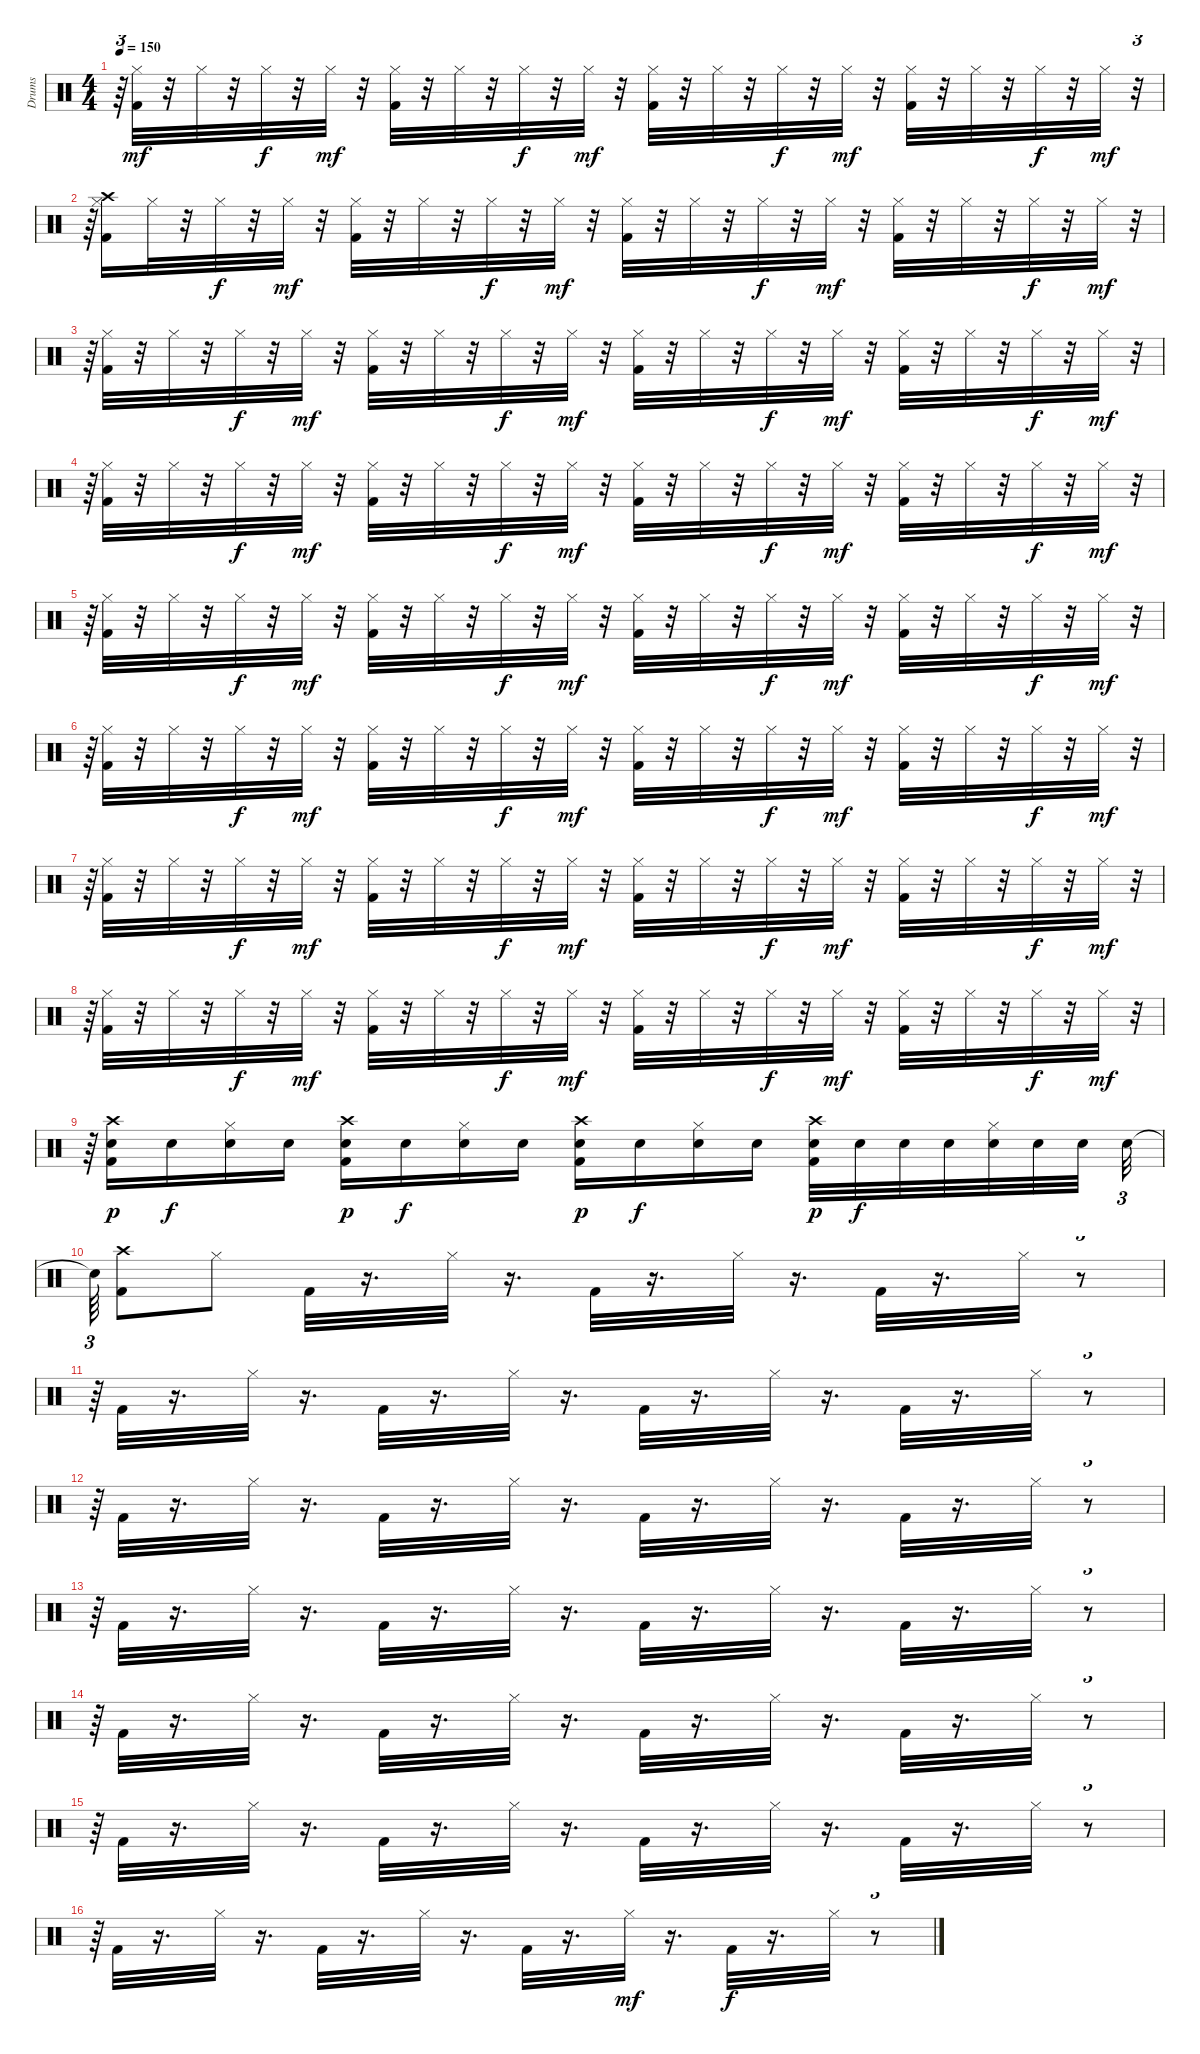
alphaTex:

\track ("Drums" "Drums") {instrument percussion}
\staff {score}
\articulation defaults
\ts (4 4)
\tempo 150
\clef neutral
\ks c
r.64{tu (3 2) dy mf} ("Hi-Hat (closed)" "Kick (hit) 2").32 r.32 "Hi-Hat (closed)".32 r.32 "Hi-Hat (closed)".32{dy f} r.32 "Hi-Hat (closed)".32{dy mf} r.32 ("Hi-Hat (closed)" "Kick (hit) 2").32 r.32 "Hi-Hat (closed)".32 r.32 "Hi-Hat (closed)".32{dy f} r.32 "Hi-Hat (closed)".32{dy mf} r.32 ("Hi-Hat (closed)" "Kick (hit) 2").32 r.32 "Hi-Hat (closed)".32 r.32 "Hi-Hat (closed)".32{dy f} r.32 "Hi-Hat (closed)".32{dy mf} r.32 ("Hi-Hat (closed)" "Kick (hit) 2").32 r.32 "Hi-Hat (closed)".32 r.32 "Hi-Hat (closed)".32{dy f} r.32 "Hi-Hat (closed)".32{dy mf} r.32{tu (3 2)} |
r.64{tu (3 2)} ("Hi-Hat (closed)" "Kick (hit) 2" "Crash high (hit)").16 "Hi-Hat (closed)".32 r.32 "Hi-Hat (closed)".32{dy f} r.32 "Hi-Hat (closed)".32{dy mf} r.32 ("Hi-Hat (closed)" "Kick (hit) 2").32 r.32 "Hi-Hat (closed)".32 r.32 "Hi-Hat (closed)".32{dy f} r.32 "Hi-Hat (closed)".32{dy mf} r.32 ("Hi-Hat (closed)" "Kick (hit) 2").32 r.32 "Hi-Hat (closed)".32 r.32 "Hi-Hat (closed)".32{dy f} r.32 "Hi-Hat (closed)".32{dy mf} r.32 ("Hi-Hat (closed)" "Kick (hit) 2").32 r.32 "Hi-Hat (closed)".32 r.32 "Hi-Hat (closed)".32{dy f} r.32 "Hi-Hat (closed)".32{dy mf} r.32{tu (3 2)} |
r.64{tu (3 2)} ("Hi-Hat (closed)" "Kick (hit) 2").32 r.32 "Hi-Hat (closed)".32 r.32 "Hi-Hat (closed)".32{dy f} r.32 "Hi-Hat (closed)".32{dy mf} r.32 ("Hi-Hat (closed)" "Kick (hit) 2").32 r.32 "Hi-Hat (closed)".32 r.32 "Hi-Hat (closed)".32{dy f} r.32 "Hi-Hat (closed)".32{dy mf} r.32 ("Hi-Hat (closed)" "Kick (hit) 2").32 r.32 "Hi-Hat (closed)".32 r.32 "Hi-Hat (closed)".32{dy f} r.32 "Hi-Hat (closed)".32{dy mf} r.32 ("Hi-Hat (closed)" "Kick (hit) 2").32 r.32 "Hi-Hat (closed)".32 r.32 "Hi-Hat (closed)".32{dy f} r.32 "Hi-Hat (closed)".32{dy mf} r.32{tu (3 2)} |
r.64{tu (3 2)} ("Hi-Hat (closed)" "Kick (hit) 2").32 r.32 "Hi-Hat (closed)".32 r.32 "Hi-Hat (closed)".32{dy f} r.32 "Hi-Hat (closed)".32{dy mf} r.32 ("Hi-Hat (closed)" "Kick (hit) 2").32 r.32 "Hi-Hat (closed)".32 r.32 "Hi-Hat (closed)".32{dy f} r.32 "Hi-Hat (closed)".32{dy mf} r.32 ("Hi-Hat (closed)" "Kick (hit) 2").32 r.32 "Hi-Hat (closed)".32 r.32 "Hi-Hat (closed)".32{dy f} r.32 "Hi-Hat (closed)".32{dy mf} r.32 ("Hi-Hat (closed)" "Kick (hit) 2").32 r.32 "Hi-Hat (closed)".32 r.32 "Hi-Hat (closed)".32{dy f} r.32 "Hi-Hat (closed)".32{dy mf} r.32{tu (3 2)} |
r.64{tu (3 2)} ("Hi-Hat (closed)" "Kick (hit) 2").32 r.32 "Hi-Hat (closed)".32 r.32 "Hi-Hat (closed)".32{dy f} r.32 "Hi-Hat (closed)".32{dy mf} r.32 ("Hi-Hat (closed)" "Kick (hit) 2").32 r.32 "Hi-Hat (closed)".32 r.32 "Hi-Hat (closed)".32{dy f} r.32 "Hi-Hat (closed)".32{dy mf} r.32 ("Hi-Hat (closed)" "Kick (hit) 2").32 r.32 "Hi-Hat (closed)".32 r.32 "Hi-Hat (closed)".32{dy f} r.32 "Hi-Hat (closed)".32{dy mf} r.32 ("Hi-Hat (closed)" "Kick (hit) 2").32 r.32 "Hi-Hat (closed)".32 r.32 "Hi-Hat (closed)".32{dy f} r.32 "Hi-Hat (closed)".32{dy mf} r.32{tu (3 2)} |
r.64{tu (3 2)} ("Hi-Hat (closed)" "Kick (hit) 2").32 r.32 "Hi-Hat (closed)".32 r.32 "Hi-Hat (closed)".32{dy f} r.32 "Hi-Hat (closed)".32{dy mf} r.32 ("Hi-Hat (closed)" "Kick (hit) 2").32 r.32 "Hi-Hat (closed)".32 r.32 "Hi-Hat (closed)".32{dy f} r.32 "Hi-Hat (closed)".32{dy mf} r.32 ("Hi-Hat (closed)" "Kick (hit) 2").32 r.32 "Hi-Hat (closed)".32 r.32 "Hi-Hat (closed)".32{dy f} r.32 "Hi-Hat (closed)".32{dy mf} r.32 ("Hi-Hat (closed)" "Kick (hit) 2").32 r.32 "Hi-Hat (closed)".32 r.32 "Hi-Hat (closed)".32{dy f} r.32 "Hi-Hat (closed)".32{dy mf} r.32{tu (3 2)} |
r.64{tu (3 2)} ("Hi-Hat (closed)" "Kick (hit) 2").32 r.32 "Hi-Hat (closed)".32 r.32 "Hi-Hat (closed)".32{dy f} r.32 "Hi-Hat (closed)".32{dy mf} r.32 ("Hi-Hat (closed)" "Kick (hit) 2").32 r.32 "Hi-Hat (closed)".32 r.32 "Hi-Hat (closed)".32{dy f} r.32 "Hi-Hat (closed)".32{dy mf} r.32 ("Hi-Hat (closed)" "Kick (hit) 2").32 r.32 "Hi-Hat (closed)".32 r.32 "Hi-Hat (closed)".32{dy f} r.32 "Hi-Hat (closed)".32{dy mf} r.32 ("Hi-Hat (closed)" "Kick (hit) 2").32 r.32 "Hi-Hat (closed)".32 r.32 "Hi-Hat (closed)".32{dy f} r.32 "Hi-Hat (closed)".32{dy mf} r.32{tu (3 2)} |
r.64{tu (3 2)} ("Hi-Hat (closed)" "Kick (hit) 2").32 r.32 "Hi-Hat (closed)".32 r.32 "Hi-Hat (closed)".32{dy f} r.32 "Hi-Hat (closed)".32{dy mf} r.32 ("Hi-Hat (closed)" "Kick (hit) 2").32 r.32 "Hi-Hat (closed)".32 r.32 "Hi-Hat (closed)".32{dy f} r.32 "Hi-Hat (closed)".32{dy mf} r.32 ("Hi-Hat (closed)" "Kick (hit) 2").32 r.32 "Hi-Hat (closed)".32 r.32 "Hi-Hat (closed)".32{dy f} r.32 "Hi-Hat (closed)".32{dy mf} r.32 ("Hi-Hat (closed)" "Kick (hit) 2").32 r.32 "Hi-Hat (closed)".32 r.32 "Hi-Hat (closed)".32{dy f} r.32 "Hi-Hat (closed)".32{dy mf} r.32{tu (3 2)} |
r.64{tu (3 2)} ("Electric Snare (hit)" "Crash high (hit)" "Kick (hit) 2").16{dy p} "Electric Snare (hit)".16{dy f} ("Electric Snare (hit)" "Hi-Hat (closed)").16 "Electric Snare (hit)".16 ("Electric Snare (hit)" "Kick (hit) 2" "Crash high (hit)").16{dy p} "Electric Snare (hit)".16{dy f} ("Electric Snare (hit)" "Hi-Hat (closed)").16 "Electric Snare (hit)".16 ("Electric Snare (hit)" "Kick (hit) 2" "Crash high (hit)").16{dy p} "Electric Snare (hit)".16{dy f} ("Electric Snare (hit)" "Hi-Hat (closed)").16 "Electric Snare (hit)".16 ("Electric Snare (hit)" "Kick (hit) 2" "Crash high (hit)").32{dy p} "Electric Snare (hit)".32{dy f} "Electric Snare (hit)".32 "Electric Snare (hit)".32 ("Electric Snare (hit)" "Hi-Hat (closed)").32 "Electric Snare (hit)".32 "Electric Snare (hit)".32 "Electric Snare (hit)".32{tu (3 2)} |
"Snare (hit)"{t}.64{tu (3 2)} ("Kick (hit) 2" "Crash high (hit)").8 "Hi-Hat (closed)".8 "Kick (hit) 2".32 r.16{d} "Hi-Hat (closed)".32 r.16{d} "Kick (hit) 2".32 r.16{d} "Hi-Hat (closed)".32 r.16{d} "Kick (hit) 2".32 r.16{d} "Hi-Hat (closed)".32 r.8{tu (3 2)} |
r.64{tu (3 2)} "Kick (hit) 2".32 r.16{d} "Hi-Hat (closed)".32 r.16{d} "Kick (hit) 2".32 r.16{d} "Hi-Hat (closed)".32 r.16{d} "Kick (hit) 2".32 r.16{d} "Hi-Hat (closed)".32 r.16{d} "Kick (hit) 2".32 r.16{d} "Hi-Hat (closed)".32 r.8{tu (3 2)} |
r.64{tu (3 2)} "Kick (hit) 2".32 r.16{d} "Hi-Hat (closed)".32 r.16{d} "Kick (hit) 2".32 r.16{d} "Hi-Hat (closed)".32 r.16{d} "Kick (hit) 2".32 r.16{d} "Hi-Hat (closed)".32 r.16{d} "Kick (hit) 2".32 r.16{d} "Hi-Hat (closed)".32 r.8{tu (3 2)} |
r.64{tu (3 2)} "Kick (hit) 2".32 r.16{d} "Hi-Hat (closed)".32 r.16{d} "Kick (hit) 2".32 r.16{d} "Hi-Hat (closed)".32 r.16{d} "Kick (hit) 2".32 r.16{d} "Hi-Hat (closed)".32 r.16{d} "Kick (hit) 2".32 r.16{d} "Hi-Hat (closed)".32 r.8{tu (3 2)} |
r.64{tu (3 2)} "Kick (hit) 2".32 r.16{d} "Hi-Hat (closed)".32 r.16{d} "Kick (hit) 2".32 r.16{d} "Hi-Hat (closed)".32 r.16{d} "Kick (hit) 2".32 r.16{d} "Hi-Hat (closed)".32 r.16{d} "Kick (hit) 2".32 r.16{d} "Hi-Hat (closed)".32 r.8{tu (3 2)} |
r.64{tu (3 2)} "Kick (hit) 2".32 r.16{d} "Hi-Hat (closed)".32 r.16{d} "Kick (hit) 2".32 r.16{d} "Hi-Hat (closed)".32 r.16{d} "Kick (hit) 2".32 r.16{d} "Hi-Hat (closed)".32 r.16{d} "Kick (hit) 2".32 r.16{d} "Hi-Hat (closed)".32 r.8{tu (3 2)} |
r.64{tu (3 2)} "Kick (hit) 2".32 r.16{d} "Hi-Hat (closed)".32 r.16{d} "Kick (hit) 2".32 r.16{d} "Hi-Hat (closed)".32 r.16{d} "Kick (hit) 2".32 r.16{d} "Hi-Hat (closed)".32{dy mf} r.16{d} "Kick (hit) 2".32{dy f} r.16{d} "Hi-Hat (closed)".32 r.8{tu (3 2)}
